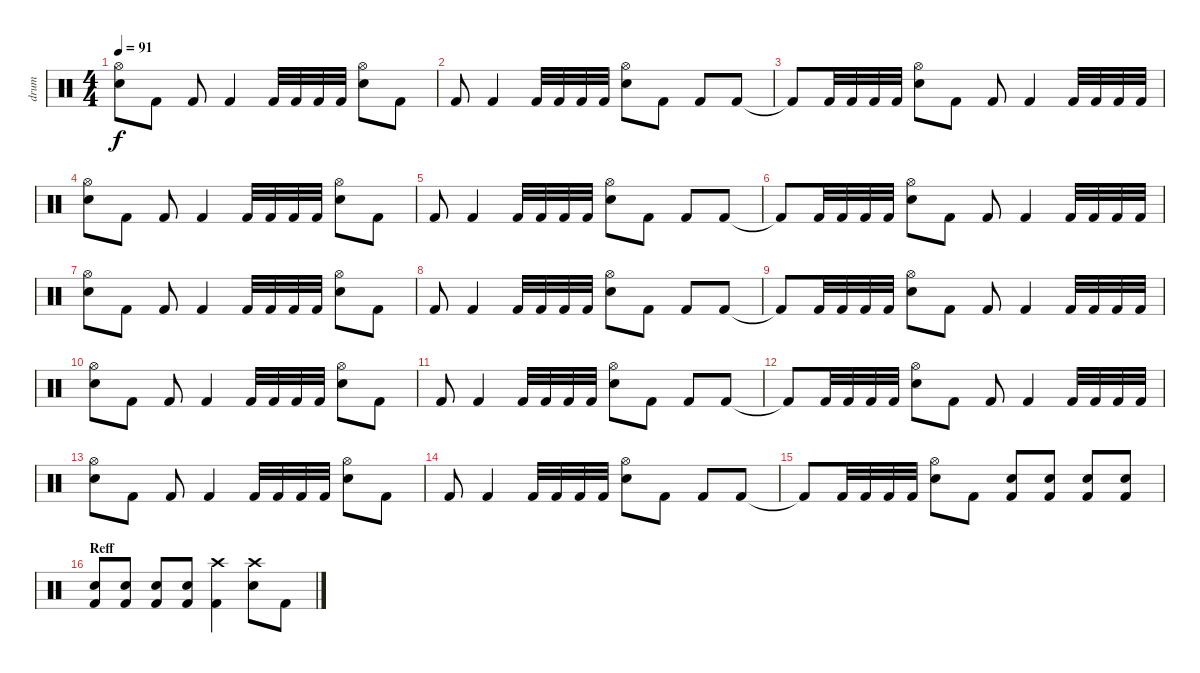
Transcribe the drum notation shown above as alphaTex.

\track ("drum" "drum") {instrument percussion}
\staff {score}
\articulation defaults
\ts (4 4)
\tempo 91
\clef neutral
\ks c
("Hi-Hat (open)" "Electric Snare (hit)").8{dy f} "Kick (hit) 2".8 "Kick (hit) 2".8 "Kick (hit) 2".4 "Kick (hit) 2".32 "Kick (hit) 2".32 "Kick (hit) 2".32 "Kick (hit) 2".32 ("Hi-Hat (open)" "Electric Snare (hit)").8 "Kick (hit) 2".8 |
"Kick (hit) 2".8 "Kick (hit) 2".4 "Kick (hit) 2".32 "Kick (hit) 2".32 "Kick (hit) 2".32 "Kick (hit) 2".32 ("Hi-Hat (open)" "Electric Snare (hit)").8 "Kick (hit) 2".8 "Kick (hit) 2".8 "Kick (hit) 2".8 |
"Kick (hit) 2"{t}.8 "Kick (hit) 2".32 "Kick (hit) 2".32 "Kick (hit) 2".32 "Kick (hit) 2".32 ("Hi-Hat (open)" "Electric Snare (hit)").8 "Kick (hit) 2".8 "Kick (hit) 2".8 "Kick (hit) 2".4 "Kick (hit) 2".32 "Kick (hit) 2".32 "Kick (hit) 2".32 "Kick (hit) 2".32 |
("Hi-Hat (open)" "Electric Snare (hit)").8 "Kick (hit) 2".8 "Kick (hit) 2".8 "Kick (hit) 2".4 "Kick (hit) 2".32 "Kick (hit) 2".32 "Kick (hit) 2".32 "Kick (hit) 2".32 ("Hi-Hat (open)" "Electric Snare (hit)").8 "Kick (hit) 2".8 |
"Kick (hit) 2".8 "Kick (hit) 2".4 "Kick (hit) 2".32 "Kick (hit) 2".32 "Kick (hit) 2".32 "Kick (hit) 2".32 ("Hi-Hat (open)" "Electric Snare (hit)").8 "Kick (hit) 2".8 "Kick (hit) 2".8 "Kick (hit) 2".8 |
"Kick (hit) 2"{t}.8 "Kick (hit) 2".32 "Kick (hit) 2".32 "Kick (hit) 2".32 "Kick (hit) 2".32 ("Hi-Hat (open)" "Electric Snare (hit)").8 "Kick (hit) 2".8 "Kick (hit) 2".8 "Kick (hit) 2".4 "Kick (hit) 2".32 "Kick (hit) 2".32 "Kick (hit) 2".32 "Kick (hit) 2".32 |
("Hi-Hat (open)" "Electric Snare (hit)").8 "Kick (hit) 2".8 "Kick (hit) 2".8 "Kick (hit) 2".4 "Kick (hit) 2".32 "Kick (hit) 2".32 "Kick (hit) 2".32 "Kick (hit) 2".32 ("Hi-Hat (open)" "Electric Snare (hit)").8 "Kick (hit) 2".8 |
"Kick (hit) 2".8 "Kick (hit) 2".4 "Kick (hit) 2".32 "Kick (hit) 2".32 "Kick (hit) 2".32 "Kick (hit) 2".32 ("Hi-Hat (open)" "Electric Snare (hit)").8 "Kick (hit) 2".8 "Kick (hit) 2".8 "Kick (hit) 2".8 |
"Kick (hit) 2"{t}.8 "Kick (hit) 2".32 "Kick (hit) 2".32 "Kick (hit) 2".32 "Kick (hit) 2".32 ("Hi-Hat (open)" "Electric Snare (hit)").8 "Kick (hit) 2".8 "Kick (hit) 2".8 "Kick (hit) 2".4 "Kick (hit) 2".32 "Kick (hit) 2".32 "Kick (hit) 2".32 "Kick (hit) 2".32 |
("Hi-Hat (open)" "Electric Snare (hit)").8 "Kick (hit) 2".8 "Kick (hit) 2".8 "Kick (hit) 2".4 "Kick (hit) 2".32 "Kick (hit) 2".32 "Kick (hit) 2".32 "Kick (hit) 2".32 ("Hi-Hat (open)" "Electric Snare (hit)").8 "Kick (hit) 2".8 |
"Kick (hit) 2".8 "Kick (hit) 2".4 "Kick (hit) 2".32 "Kick (hit) 2".32 "Kick (hit) 2".32 "Kick (hit) 2".32 ("Hi-Hat (open)" "Electric Snare (hit)").8 "Kick (hit) 2".8 "Kick (hit) 2".8 "Kick (hit) 2".8 |
"Kick (hit) 2"{t}.8 "Kick (hit) 2".32 "Kick (hit) 2".32 "Kick (hit) 2".32 "Kick (hit) 2".32 ("Hi-Hat (open)" "Electric Snare (hit)").8 "Kick (hit) 2".8 "Kick (hit) 2".8 "Kick (hit) 2".4 "Kick (hit) 2".32 "Kick (hit) 2".32 "Kick (hit) 2".32 "Kick (hit) 2".32 |
("Hi-Hat (open)" "Electric Snare (hit)").8 "Kick (hit) 2".8 "Kick (hit) 2".8 "Kick (hit) 2".4 "Kick (hit) 2".32 "Kick (hit) 2".32 "Kick (hit) 2".32 "Kick (hit) 2".32 ("Hi-Hat (open)" "Electric Snare (hit)").8 "Kick (hit) 2".8 |
"Kick (hit) 2".8 "Kick (hit) 2".4 "Kick (hit) 2".32 "Kick (hit) 2".32 "Kick (hit) 2".32 "Kick (hit) 2".32 ("Hi-Hat (open)" "Electric Snare (hit)").8 "Kick (hit) 2".8 "Kick (hit) 2".8 "Kick (hit) 2".8 |
"Kick (hit) 2"{t}.8 "Kick (hit) 2".32 "Kick (hit) 2".32 "Kick (hit) 2".32 "Kick (hit) 2".32 ("Hi-Hat (open)" "Electric Snare (hit)").8 "Kick (hit) 2".8 ("Electric Snare (hit)" "Kick (hit) 2").8 ("Electric Snare (hit)" "Kick (hit) 2").8 ("Electric Snare (hit)" "Kick (hit) 2").8 ("Electric Snare (hit)" "Kick (hit) 2").8 |
\section ("" "Reff")
("Electric Snare (hit)" "Kick (hit) 2").8 ("Electric Snare (hit)" "Kick (hit) 2").8 ("Electric Snare (hit)" "Kick (hit) 2").8 ("Electric Snare (hit)" "Kick (hit) 2").8 ("Crash high (hit)" "Kick (hit) 2").4 ("Crash high (hit)" "Electric Snare (hit)").8 "Kick (hit) 2".8
